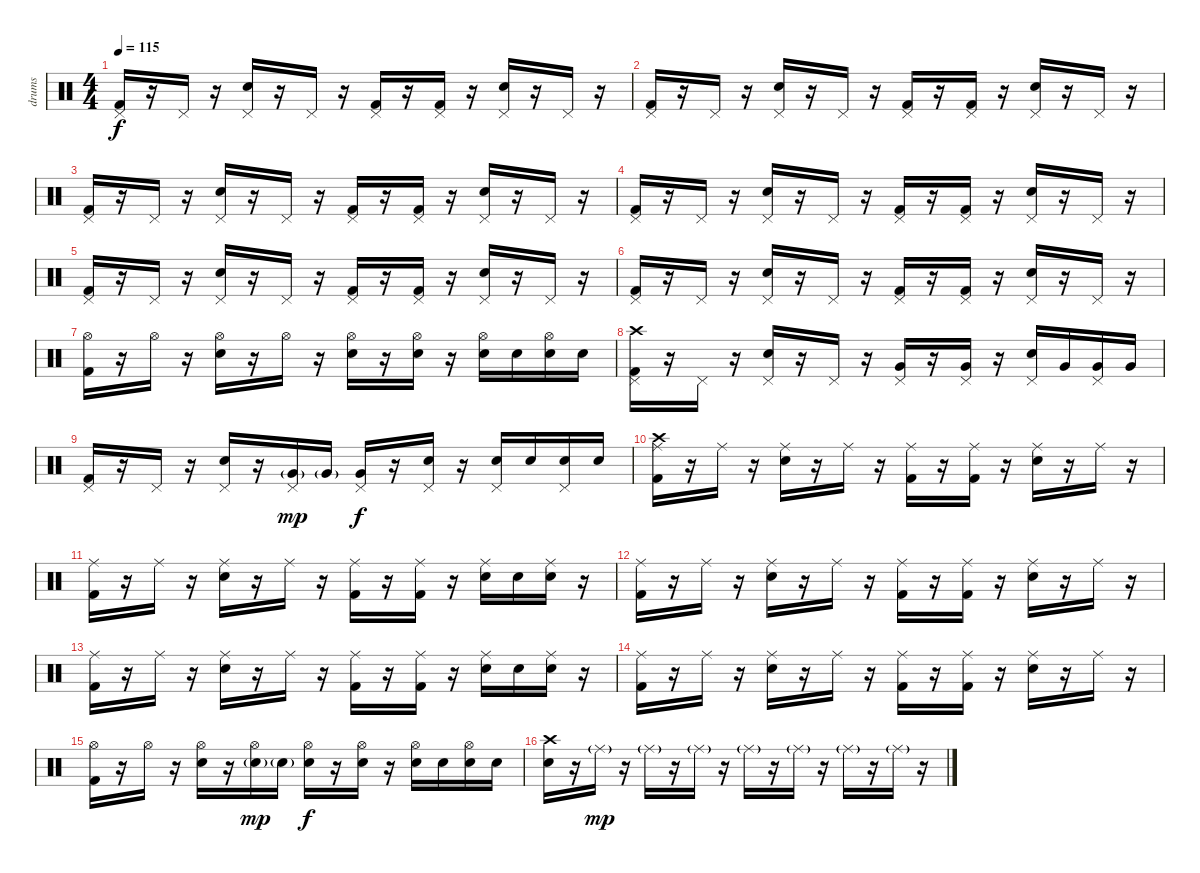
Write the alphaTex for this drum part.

\track ("drums" "drums") {instrument percussion}
\staff {score}
\articulation defaults
\ts (4 4)
\tempo 115
\clef neutral
\ks c
("Kick (hit) 2" "Pedal Hi-Hat (hit)").16{dy f} r.16 "Pedal Hi-Hat (hit)".16 r.16 ("Electric Snare (hit)" "Pedal Hi-Hat (hit)").16 r.16 "Pedal Hi-Hat (hit)".16 r.16 ("Kick (hit) 2" "Pedal Hi-Hat (hit)").16 r.16 ("Kick (hit) 2" "Pedal Hi-Hat (hit)").16 r.16 ("Electric Snare (hit)" "Pedal Hi-Hat (hit)").16 r.16 "Pedal Hi-Hat (hit)".16 r.16 |
("Kick (hit) 2" "Pedal Hi-Hat (hit)").16 r.16 "Pedal Hi-Hat (hit)".16 r.16 ("Electric Snare (hit)" "Pedal Hi-Hat (hit)").16 r.16 "Pedal Hi-Hat (hit)".16 r.16 ("Kick (hit) 2" "Pedal Hi-Hat (hit)").16 r.16 ("Kick (hit) 2" "Pedal Hi-Hat (hit)").16 r.16 ("Electric Snare (hit)" "Pedal Hi-Hat (hit)").16 r.16 "Pedal Hi-Hat (hit)".16 r.16 |
("Kick (hit) 2" "Pedal Hi-Hat (hit)").16 r.16 "Pedal Hi-Hat (hit)".16 r.16 ("Electric Snare (hit)" "Pedal Hi-Hat (hit)").16 r.16 "Pedal Hi-Hat (hit)".16 r.16 ("Kick (hit) 2" "Pedal Hi-Hat (hit)").16 r.16 ("Kick (hit) 2" "Pedal Hi-Hat (hit)").16 r.16 ("Electric Snare (hit)" "Pedal Hi-Hat (hit)").16 r.16 "Pedal Hi-Hat (hit)".16 r.16 |
("Kick (hit) 2" "Pedal Hi-Hat (hit)").16 r.16 "Pedal Hi-Hat (hit)".16 r.16 ("Electric Snare (hit)" "Pedal Hi-Hat (hit)").16 r.16 "Pedal Hi-Hat (hit)".16 r.16 ("Kick (hit) 2" "Pedal Hi-Hat (hit)").16 r.16 ("Kick (hit) 2" "Pedal Hi-Hat (hit)").16 r.16 ("Electric Snare (hit)" "Pedal Hi-Hat (hit)").16 r.16 "Pedal Hi-Hat (hit)".16 r.16 |
("Kick (hit) 2" "Pedal Hi-Hat (hit)").16 r.16 "Pedal Hi-Hat (hit)".16 r.16 ("Electric Snare (hit)" "Pedal Hi-Hat (hit)").16 r.16 "Pedal Hi-Hat (hit)".16 r.16 ("Kick (hit) 2" "Pedal Hi-Hat (hit)").16 r.16 ("Kick (hit) 2" "Pedal Hi-Hat (hit)").16 r.16 ("Electric Snare (hit)" "Pedal Hi-Hat (hit)").16 r.16 "Pedal Hi-Hat (hit)".16 r.16 |
("Kick (hit) 2" "Pedal Hi-Hat (hit)").16 r.16 "Pedal Hi-Hat (hit)".16 r.16 ("Electric Snare (hit)" "Pedal Hi-Hat (hit)").16 r.16 "Pedal Hi-Hat (hit)".16 r.16 ("Kick (hit) 2" "Pedal Hi-Hat (hit)").16 r.16 ("Kick (hit) 2" "Pedal Hi-Hat (hit)").16 r.16 ("Electric Snare (hit)" "Pedal Hi-Hat (hit)").16 r.16 "Pedal Hi-Hat (hit)".16 r.16 |
("Kick (hit) 2" "Hi-Hat (open)").16 r.16 "Hi-Hat (open)".16 r.16 ("Electric Snare (hit)" "Hi-Hat (open)").16 r.16 "Hi-Hat (open)".16 r.16 ("Electric Snare (hit)" "Hi-Hat (open)").16 r.16 ("Electric Snare (hit)" "Hi-Hat (open)").16 r.16 ("Electric Snare (hit)" "Hi-Hat (open)").16 "Electric Snare (hit)".16 ("Electric Snare (hit)" "Hi-Hat (open)").16 "Electric Snare (hit)".16 |
("Kick (hit) 2" "Pedal Hi-Hat (hit)" "Crash high (hit)").16 r.16 "Pedal Hi-Hat (hit)".16 r.16 ("Electric Snare (hit)" "Pedal Hi-Hat (hit)").16 r.16 "Pedal Hi-Hat (hit)".16 r.16 ("Very Low Tom (hit)" "Pedal Hi-Hat (hit)").16 r.16 ("Very Low Tom (hit)" "Pedal Hi-Hat (hit)").16 r.16 ("Electric Snare (hit)" "Pedal Hi-Hat (hit)").16 "Very Low Tom (hit)".16 ("Very Low Tom (hit)" "Pedal Hi-Hat (hit)").16 "Very Low Tom (hit)".16 |
("Kick (hit) 2" "Pedal Hi-Hat (hit)").16 r.16 "Pedal Hi-Hat (hit)".16 r.16 ("Electric Snare (hit)" "Pedal Hi-Hat (hit)").16 r.16 ("Very Low Tom (hit)"{g} "Pedal Hi-Hat (hit)").16{dy mp} "Very Low Tom (hit)"{g}.16 ("Very Low Tom (hit)" "Pedal Hi-Hat (hit)").16{dy f} r.16 ("Electric Snare (hit)" "Pedal Hi-Hat (hit)").16 r.16 ("Electric Snare (hit)" "Pedal Hi-Hat (hit)").16 "Electric Snare (hit)".16 ("Electric Snare (hit)" "Pedal Hi-Hat (hit)").16 "Electric Snare (hit)".16 |
("Kick (hit) 2" "Ride (middle)" "Crash high (hit)").16 r.16 "Ride (middle)".16 r.16 ("Electric Snare (hit)" "Ride (middle)").16 r.16 "Ride (middle)".16 r.16 ("Kick (hit) 2" "Ride (middle)").16 r.16 ("Kick (hit) 2" "Ride (middle)").16 r.16 ("Electric Snare (hit)" "Ride (middle)").16 r.16 "Ride (middle)".16 r.16 |
("Kick (hit) 2" "Ride (middle)").16 r.16 "Ride (middle)".16 r.16 ("Electric Snare (hit)" "Ride (middle)").16 r.16 "Ride (middle)".16 r.16 ("Kick (hit) 2" "Ride (middle)").16 r.16 ("Kick (hit) 2" "Ride (middle)").16 r.16 ("Electric Snare (hit)" "Ride (middle)").16 "Electric Snare (hit)".16 ("Electric Snare (hit)" "Ride (middle)").16 r.16 |
("Kick (hit) 2" "Ride (middle)").16 r.16 "Ride (middle)".16 r.16 ("Electric Snare (hit)" "Ride (middle)").16 r.16 "Ride (middle)".16 r.16 ("Kick (hit) 2" "Ride (middle)").16 r.16 ("Kick (hit) 2" "Ride (middle)").16 r.16 ("Electric Snare (hit)" "Ride (middle)").16 r.16 "Ride (middle)".16 r.16 |
("Kick (hit) 2" "Ride (middle)").16 r.16 "Ride (middle)".16 r.16 ("Electric Snare (hit)" "Ride (middle)").16 r.16 "Ride (middle)".16 r.16 ("Kick (hit) 2" "Ride (middle)").16 r.16 ("Kick (hit) 2" "Ride (middle)").16 r.16 ("Electric Snare (hit)" "Ride (middle)").16 "Electric Snare (hit)".16 ("Electric Snare (hit)" "Ride (middle)").16 r.16 |
("Kick (hit) 2" "Ride (middle)").16 r.16 "Ride (middle)".16 r.16 ("Electric Snare (hit)" "Ride (middle)").16 r.16 "Ride (middle)".16 r.16 ("Kick (hit) 2" "Ride (middle)").16 r.16 ("Kick (hit) 2" "Ride (middle)").16 r.16 ("Electric Snare (hit)" "Ride (middle)").16 r.16 "Ride (middle)".16 r.16 |
("Kick (hit) 2" "Hi-Hat (open)").16 r.16 "Hi-Hat (open)".16 r.16 ("Electric Snare (hit)" "Hi-Hat (open)").16 r.16 ("Electric Snare (hit)"{g} "Hi-Hat (open)").16{dy mp} "Electric Snare (hit)"{g}.16 ("Electric Snare (hit)" "Hi-Hat (open)").16{dy f} r.16 ("Electric Snare (hit)" "Hi-Hat (open)").16 r.16 ("Electric Snare (hit)" "Hi-Hat (open)").16 "Electric Snare (hit)".16 ("Electric Snare (hit)" "Hi-Hat (open)").16 "Electric Snare (hit)".16 |
("Electric Snare (hit)" "Crash high (hit)").16 r.16 "Ride (middle)"{g}.16{dy mp} r.16 "Ride (middle)"{g}.16 r.16 "Ride (middle)"{g}.16 r.16 "Ride (middle)"{g}.16 r.16 "Ride (middle)"{g}.16 r.16 "Ride (middle)"{g}.16 r.16 "Ride (middle)"{g}.16 r.16
